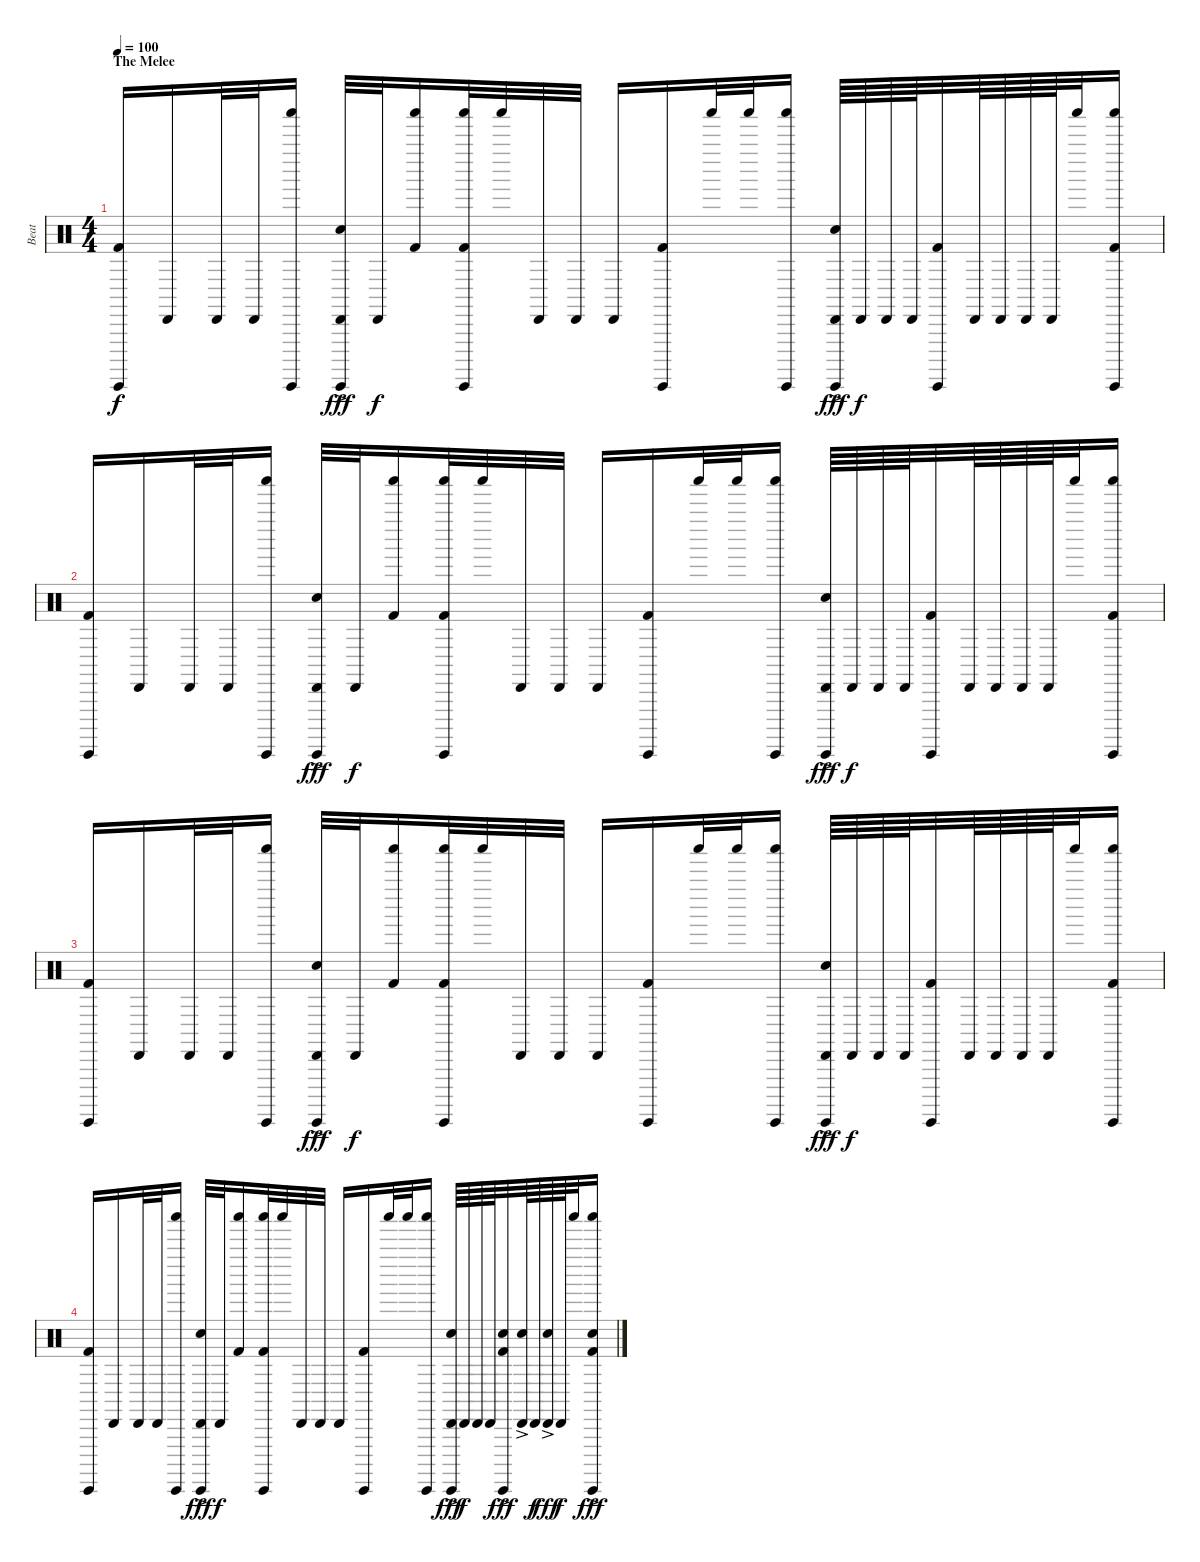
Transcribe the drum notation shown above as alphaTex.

\track ("Beat" "Beat") {instrument percussion}
\staff {score}
\articulation defaults
\ts (4 4)
\section ("" "The Melee")
\tempo 100
\clef neutral
\ks c
("Guiro (hit)" "Kick (hit) 2").16{dy f} "Cabasa (hit)".16 "Cabasa (hit)".32 "Cabasa (hit)".32 ("Guiro (hit)" "Shaker (hit)").16 ("Guiro (hit)" "Cabasa (hit)" "Snare (hit) 2"{ac}).32{dy fff} "Cabasa (hit)".32{dy f} ("Shaker (hit)" "Kick (hit) 2").16 ("Guiro (hit)" "Shaker (hit)" "Kick (hit) 2").32 "Shaker (hit)".32 "Cabasa (hit)".32 "Cabasa (hit)".32 "Cabasa (hit)".16 ("Guiro (hit)" "Kick (hit) 2").16 "Shaker (hit)".32 "Shaker (hit)".32 ("Guiro (hit)" "Shaker (hit)").16 ("Guiro (hit)" "Cabasa (hit)" "Snare (hit) 2"{ac}).64{dy fff} "Cabasa (hit)".64{dy f} "Cabasa (hit)".64 "Cabasa (hit)".64 ("Guiro (hit)" "Kick (hit) 2").32 "Cabasa (hit)".64 "Cabasa (hit)".64 "Cabasa (hit)".64 "Cabasa (hit)".64 "Shaker (hit)".32 ("Guiro (hit)" "Shaker (hit)" "Kick (hit) 2").16 |
("Guiro (hit)" "Kick (hit) 2").16 "Cabasa (hit)".16 "Cabasa (hit)".32 "Cabasa (hit)".32 ("Guiro (hit)" "Shaker (hit)").16 ("Guiro (hit)" "Cabasa (hit)" "Snare (hit) 2"{ac}).32{dy fff} "Cabasa (hit)".32{dy f} ("Shaker (hit)" "Kick (hit) 2").16 ("Guiro (hit)" "Shaker (hit)" "Kick (hit) 2").32 "Shaker (hit)".32 "Cabasa (hit)".32 "Cabasa (hit)".32 "Cabasa (hit)".16 ("Guiro (hit)" "Kick (hit) 2").16 "Shaker (hit)".32 "Shaker (hit)".32 ("Guiro (hit)" "Shaker (hit)").16 ("Guiro (hit)" "Cabasa (hit)" "Snare (hit) 2"{ac}).64{dy fff} "Cabasa (hit)".64{dy f} "Cabasa (hit)".64 "Cabasa (hit)".64 ("Guiro (hit)" "Kick (hit) 2").32 "Cabasa (hit)".64 "Cabasa (hit)".64 "Cabasa (hit)".64 "Cabasa (hit)".64 "Shaker (hit)".32 ("Guiro (hit)" "Shaker (hit)" "Kick (hit) 2").16 |
("Guiro (hit)" "Kick (hit) 2").16 "Cabasa (hit)".16 "Cabasa (hit)".32 "Cabasa (hit)".32 ("Guiro (hit)" "Shaker (hit)").16 ("Guiro (hit)" "Cabasa (hit)" "Snare (hit) 2"{ac}).32{dy fff} "Cabasa (hit)".32{dy f} ("Shaker (hit)" "Kick (hit) 2").16 ("Guiro (hit)" "Shaker (hit)" "Kick (hit) 2").32 "Shaker (hit)".32 "Cabasa (hit)".32 "Cabasa (hit)".32 "Cabasa (hit)".16 ("Guiro (hit)" "Kick (hit) 2").16 "Shaker (hit)".32 "Shaker (hit)".32 ("Guiro (hit)" "Shaker (hit)").16 ("Guiro (hit)" "Cabasa (hit)" "Snare (hit) 2"{ac}).64{dy fff} "Cabasa (hit)".64{dy f} "Cabasa (hit)".64 "Cabasa (hit)".64 ("Guiro (hit)" "Kick (hit) 2").32 "Cabasa (hit)".64 "Cabasa (hit)".64 "Cabasa (hit)".64 "Cabasa (hit)".64 "Shaker (hit)".32 ("Guiro (hit)" "Shaker (hit)" "Kick (hit) 2").16 |
("Guiro (hit)" "Kick (hit) 2").16 "Cabasa (hit)".16 "Cabasa (hit)".32 "Cabasa (hit)".32 ("Guiro (hit)" "Shaker (hit)").16 ("Guiro (hit)" "Cabasa (hit)" "Snare (hit) 2"{ac}).32{dy fff} "Cabasa (hit)".32{dy f} ("Shaker (hit)" "Kick (hit) 2").16 ("Guiro (hit)" "Shaker (hit)" "Kick (hit) 2").32 "Shaker (hit)".32 "Cabasa (hit)".32 "Cabasa (hit)".32 "Cabasa (hit)".16 ("Guiro (hit)" "Kick (hit) 2").16 "Shaker (hit)".32 "Shaker (hit)".32 ("Guiro (hit)" "Shaker (hit)").16 ("Guiro (hit)" "Cabasa (hit)" "Snare (hit) 2"{ac}).64{dy fff} "Cabasa (hit)".64{dy f} "Cabasa (hit)".64 "Cabasa (hit)".64 ("Guiro (hit)" "Snare (hit) 2"{ac} "Kick (hit) 2").32{dy fff} ("Cabasa (hit)" "Snare (hit) 2"{ac}).64 "Cabasa (hit)".64{dy f} ("Cabasa (hit)" "Snare (hit) 2"{ac}).64{dy fff} "Cabasa (hit)".64{dy f} "Shaker (hit)".32 ("Guiro (hit)" "Shaker (hit)" "Snare (hit) 2"{ac} "Kick (hit) 2").16{dy fff}
